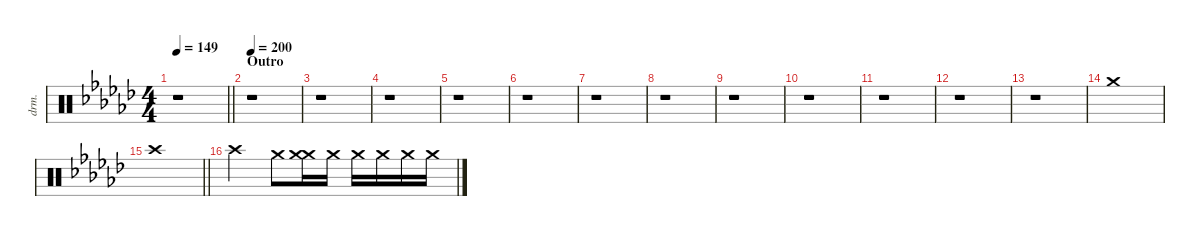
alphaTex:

\defaultSystemsLayout 4
\hideDynamics
\bracketExtendMode nobrackets
\otherSystemsTrackNameOrientation horizontal
\track ("Drums" "drm.") {defaultSystemsLayout 4 instrument percussion}
\staff {score}
\articulation defaults
\ts (4 4)
\tempo 149
\clef neutral
\barLineRight lightlight
\ks gb
r.1{dy f beam Down} |
\section ("" "Outro")
\tempo 200
r.1{beam Down} |
r.1{beam Down} |
r.1{beam Down} |
r.1{beam Down} |
r.1{beam Down} |
r.1{beam Down} |
r.1{beam Down} |
r.1{beam Down} |
r.1{beam Down} |
r.1{beam Down} |
r.1{beam Down} |
r.1{beam Down} |
"Crash medium (hit)"{acc forcenatural}.1{beam Down} |
\barLineRight lightlight "Crash high (hit)"{acc forcenatural}.1{beam Down}
|
"Crash high (hit)"{acc forcenatural}.2{beam Down} "Crash medium (hit)"{acc forcenatural}.8{dy mp beam Down} ("Crash medium (hit)"{acc forcenatural} "Crash medium (hit)"{acc forcenatural}).16{dy pp beam Down} "Crash medium (hit)"{acc forcenatural}.16{beam Down} "Crash medium (hit)"{acc forcenatural}.16{beam Down} "Crash medium (hit)"{acc forcenatural}.16{dy p beam Down} "Crash medium (hit)"{acc forcenatural}.16{beam Down} "Crash medium (hit)"{acc forcenatural}.16{beam Down}
